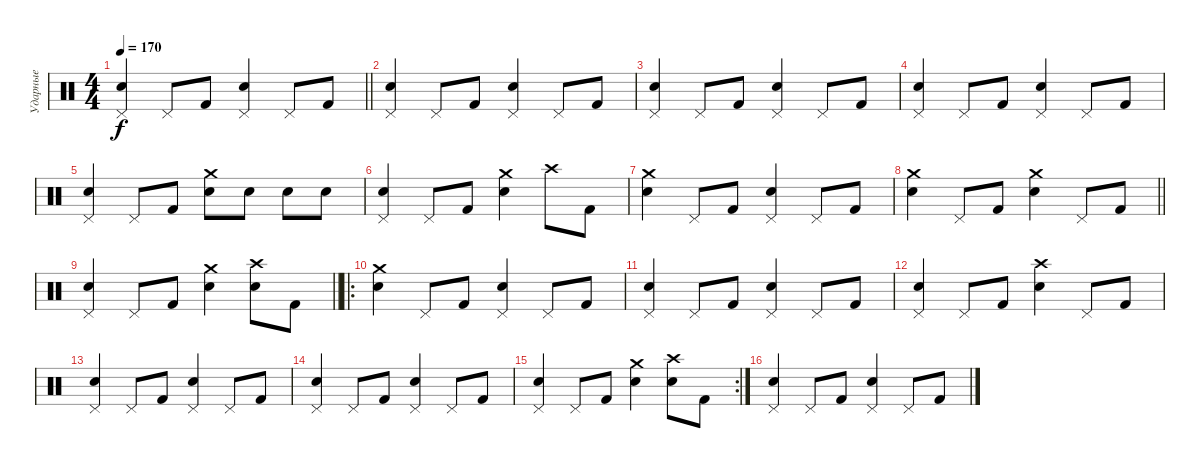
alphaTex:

\track ("Ударные" "Ударные") {instrument percussion}
\staff {score}
\articulation defaults
\ts (4 4)
\tempo 170
\clef neutral
\barLineRight lightlight
\ks c
("Pedal Hi-Hat (hit)" "Snare (hit) 2").4{dy f} "Pedal Hi-Hat (hit)".8 "Kick (hit) 2".8 ("Pedal Hi-Hat (hit)" "Snare (hit) 2").4 "Pedal Hi-Hat (hit)".8 "Kick (hit) 2".8 |
("Pedal Hi-Hat (hit)" "Snare (hit) 2").4 "Pedal Hi-Hat (hit)".8 "Kick (hit) 2".8 ("Pedal Hi-Hat (hit)" "Snare (hit) 2").4 "Pedal Hi-Hat (hit)".8 "Kick (hit) 2".8 |
("Pedal Hi-Hat (hit)" "Snare (hit) 2").4 "Pedal Hi-Hat (hit)".8 "Kick (hit) 2".8 ("Pedal Hi-Hat (hit)" "Snare (hit) 2").4 "Pedal Hi-Hat (hit)".8 "Kick (hit) 2".8 |
("Pedal Hi-Hat (hit)" "Snare (hit) 2").4 "Pedal Hi-Hat (hit)".8 "Kick (hit) 2".8 ("Pedal Hi-Hat (hit)" "Snare (hit) 2").4 "Pedal Hi-Hat (hit)".8 "Kick (hit) 2".8 |
("Pedal Hi-Hat (hit)" "Snare (hit) 2").4 "Pedal Hi-Hat (hit)".8 "Kick (hit) 2".8 ("Crash medium (hit)" "Snare (hit) 2").8 "Snare (hit) 2".8 "Snare (hit) 2".8 "Snare (hit) 2".8 |
("Pedal Hi-Hat (hit)" "Snare (hit) 2").4 "Pedal Hi-Hat (hit)".8 "Kick (hit) 2".8 ("Crash medium (hit)" "Snare (hit) 2").4 "Crash high (hit)".8 "Kick (hit) 2".8 |
("Crash medium (hit)" "Snare (hit) 2").4 "Pedal Hi-Hat (hit)".8 "Kick (hit) 2".8 ("Pedal Hi-Hat (hit)" "Snare (hit) 2").4 "Pedal Hi-Hat (hit)".8 "Kick (hit) 2".8 |
\barLineRight lightlight
("Crash medium (hit)" "Snare (hit) 2").4 "Pedal Hi-Hat (hit)".8 "Kick (hit) 2".8 ("Crash medium (hit)" "Snare (hit) 2").4 "Pedal Hi-Hat (hit)".8 "Kick (hit) 2".8 |
\barLineRight lightlight
("Pedal Hi-Hat (hit)" "Snare (hit) 2").4 "Pedal Hi-Hat (hit)".8 "Kick (hit) 2".8 ("Crash medium (hit)" "Snare (hit) 2").4 ("Crash high (hit)" "Snare (hit) 2").8 "Kick (hit) 2".8 |
\ro
("Crash medium (hit)" "Snare (hit) 2").4 "Pedal Hi-Hat (hit)".8 "Kick (hit) 2".8 ("Pedal Hi-Hat (hit)" "Snare (hit) 2").4 "Pedal Hi-Hat (hit)".8 "Kick (hit) 2".8 |
("Pedal Hi-Hat (hit)" "Snare (hit) 2").4 "Pedal Hi-Hat (hit)".8 "Kick (hit) 2".8 ("Pedal Hi-Hat (hit)" "Snare (hit) 2").4 "Pedal Hi-Hat (hit)".8 "Kick (hit) 2".8 |
("Pedal Hi-Hat (hit)" "Snare (hit) 2").4 "Pedal Hi-Hat (hit)".8 "Kick (hit) 2".8 ("Crash high (hit)" "Snare (hit) 2").4 "Pedal Hi-Hat (hit)".8 "Kick (hit) 2".8 |
("Pedal Hi-Hat (hit)" "Snare (hit) 2").4 "Pedal Hi-Hat (hit)".8 "Kick (hit) 2".8 ("Pedal Hi-Hat (hit)" "Snare (hit) 2").4 "Pedal Hi-Hat (hit)".8 "Kick (hit) 2".8 |
("Pedal Hi-Hat (hit)" "Snare (hit) 2").4 "Pedal Hi-Hat (hit)".8 "Kick (hit) 2".8 ("Pedal Hi-Hat (hit)" "Snare (hit) 2").4 "Pedal Hi-Hat (hit)".8 "Kick (hit) 2".8 |
\rc 2
("Pedal Hi-Hat (hit)" "Snare (hit) 2").4 "Pedal Hi-Hat (hit)".8 "Kick (hit) 2".8 ("Crash medium (hit)" "Snare (hit) 2").4 ("Crash high (hit)" "Snare (hit) 2").8 "Kick (hit) 2".8 |
("Pedal Hi-Hat (hit)" "Snare (hit) 2").4 "Pedal Hi-Hat (hit)".8 "Kick (hit) 2".8 ("Pedal Hi-Hat (hit)" "Snare (hit) 2").4 "Pedal Hi-Hat (hit)".8 "Kick (hit) 2".8
